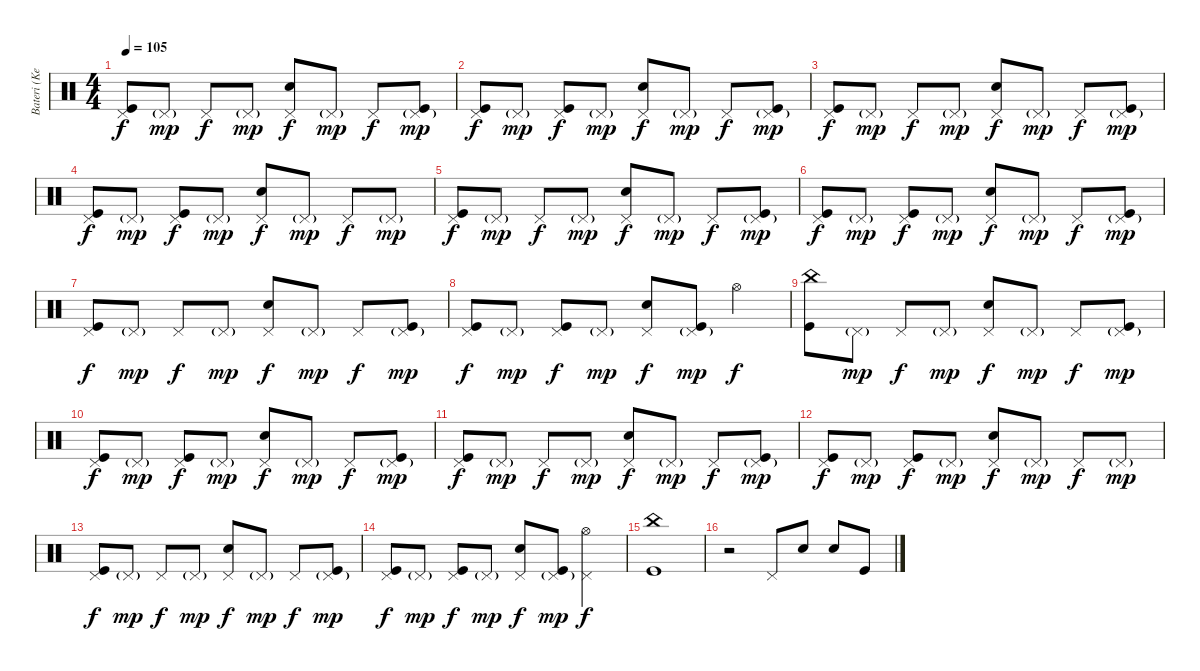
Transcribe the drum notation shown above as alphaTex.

\track ("Bateri (Kerem Kabadayı)" "Bateri (Ke") {instrument percussion}
\staff {score}
\articulation defaults
\ts (4 4)
\tempo 105
\clef neutral
\ks c
("Pedal Hi-Hat (hit)" "Kick (hit)").8{dy f} "Pedal Hi-Hat (hit)"{g}.8{dy mp} "Pedal Hi-Hat (hit)".8{dy f} "Pedal Hi-Hat (hit)"{g}.8{dy mp} ("Pedal Hi-Hat (hit)" "Electric Snare (hit)").8{dy f} "Pedal Hi-Hat (hit)"{g}.8{dy mp} "Pedal Hi-Hat (hit)".8{dy f} ("Pedal Hi-Hat (hit)"{g} "Kick (hit)").8{dy mp} |
("Pedal Hi-Hat (hit)" "Kick (hit)").8{dy f} "Pedal Hi-Hat (hit)"{g}.8{dy mp} ("Pedal Hi-Hat (hit)" "Kick (hit)").8{dy f} "Pedal Hi-Hat (hit)"{g}.8{dy mp} ("Pedal Hi-Hat (hit)" "Electric Snare (hit)").8{dy f} "Pedal Hi-Hat (hit)"{g}.8{dy mp} "Pedal Hi-Hat (hit)".8{dy f} ("Pedal Hi-Hat (hit)"{g} "Kick (hit)").8{dy mp} |
("Pedal Hi-Hat (hit)" "Kick (hit)").8{dy f} "Pedal Hi-Hat (hit)"{g}.8{dy mp} "Pedal Hi-Hat (hit)".8{dy f} "Pedal Hi-Hat (hit)"{g}.8{dy mp} ("Pedal Hi-Hat (hit)" "Electric Snare (hit)").8{dy f} "Pedal Hi-Hat (hit)"{g}.8{dy mp} "Pedal Hi-Hat (hit)".8{dy f} ("Pedal Hi-Hat (hit)"{g} "Kick (hit)").8{dy mp} |
("Pedal Hi-Hat (hit)" "Kick (hit)").8{dy f} "Pedal Hi-Hat (hit)"{g}.8{dy mp} ("Pedal Hi-Hat (hit)" "Kick (hit)").8{dy f} "Pedal Hi-Hat (hit)"{g}.8{dy mp} ("Pedal Hi-Hat (hit)" "Electric Snare (hit)").8{dy f} "Pedal Hi-Hat (hit)"{g}.8{dy mp} "Pedal Hi-Hat (hit)".8{dy f} "Pedal Hi-Hat (hit)"{g}.8{dy mp} |
("Pedal Hi-Hat (hit)" "Kick (hit)").8{dy f} "Pedal Hi-Hat (hit)"{g}.8{dy mp} "Pedal Hi-Hat (hit)".8{dy f} "Pedal Hi-Hat (hit)"{g}.8{dy mp} ("Pedal Hi-Hat (hit)" "Electric Snare (hit)").8{dy f} "Pedal Hi-Hat (hit)"{g}.8{dy mp} "Pedal Hi-Hat (hit)".8{dy f} ("Pedal Hi-Hat (hit)"{g} "Kick (hit)").8{dy mp} |
("Pedal Hi-Hat (hit)" "Kick (hit)").8{dy f} "Pedal Hi-Hat (hit)"{g}.8{dy mp} ("Pedal Hi-Hat (hit)" "Kick (hit)").8{dy f} "Pedal Hi-Hat (hit)"{g}.8{dy mp} ("Pedal Hi-Hat (hit)" "Electric Snare (hit)").8{dy f} "Pedal Hi-Hat (hit)"{g}.8{dy mp} "Pedal Hi-Hat (hit)".8{dy f} ("Pedal Hi-Hat (hit)"{g} "Kick (hit)").8{dy mp} |
("Pedal Hi-Hat (hit)" "Kick (hit)").8{dy f} "Pedal Hi-Hat (hit)"{g}.8{dy mp} "Pedal Hi-Hat (hit)".8{dy f} "Pedal Hi-Hat (hit)"{g}.8{dy mp} ("Pedal Hi-Hat (hit)" "Electric Snare (hit)").8{dy f} "Pedal Hi-Hat (hit)"{g}.8{dy mp} "Pedal Hi-Hat (hit)".8{dy f} ("Pedal Hi-Hat (hit)"{g} "Kick (hit)").8{dy mp} |
("Pedal Hi-Hat (hit)" "Kick (hit)").8{dy f} "Pedal Hi-Hat (hit)"{g}.8{dy mp} ("Pedal Hi-Hat (hit)" "Kick (hit)").8{dy f} "Pedal Hi-Hat (hit)"{g}.8{dy mp} ("Pedal Hi-Hat (hit)" "Electric Snare (hit)").8{dy f} ("Pedal Hi-Hat (hit)"{g} "Kick (hit)").8{dy mp} "Hi-Hat (open)".4{dy f} |
("China (hit)" "Kick (hit)").8 "Pedal Hi-Hat (hit)"{g}.8{dy mp} "Pedal Hi-Hat (hit)".8{dy f} "Pedal Hi-Hat (hit)"{g}.8{dy mp} ("Pedal Hi-Hat (hit)" "Electric Snare (hit)").8{dy f} "Pedal Hi-Hat (hit)"{g}.8{dy mp} "Pedal Hi-Hat (hit)".8{dy f} ("Pedal Hi-Hat (hit)"{g} "Kick (hit)").8{dy mp} |
("Pedal Hi-Hat (hit)" "Kick (hit)").8{dy f} "Pedal Hi-Hat (hit)"{g}.8{dy mp} ("Pedal Hi-Hat (hit)" "Kick (hit)").8{dy f} "Pedal Hi-Hat (hit)"{g}.8{dy mp} ("Pedal Hi-Hat (hit)" "Electric Snare (hit)").8{dy f} "Pedal Hi-Hat (hit)"{g}.8{dy mp} "Pedal Hi-Hat (hit)".8{dy f} ("Pedal Hi-Hat (hit)"{g} "Kick (hit)").8{dy mp} |
("Pedal Hi-Hat (hit)" "Kick (hit)").8{dy f} "Pedal Hi-Hat (hit)"{g}.8{dy mp} "Pedal Hi-Hat (hit)".8{dy f} "Pedal Hi-Hat (hit)"{g}.8{dy mp} ("Pedal Hi-Hat (hit)" "Electric Snare (hit)").8{dy f} "Pedal Hi-Hat (hit)"{g}.8{dy mp} "Pedal Hi-Hat (hit)".8{dy f} ("Pedal Hi-Hat (hit)"{g} "Kick (hit)").8{dy mp} |
("Pedal Hi-Hat (hit)" "Kick (hit)").8{dy f} "Pedal Hi-Hat (hit)"{g}.8{dy mp} ("Pedal Hi-Hat (hit)" "Kick (hit)").8{dy f} "Pedal Hi-Hat (hit)"{g}.8{dy mp} ("Pedal Hi-Hat (hit)" "Electric Snare (hit)").8{dy f} "Pedal Hi-Hat (hit)"{g}.8{dy mp} "Pedal Hi-Hat (hit)".8{dy f} "Pedal Hi-Hat (hit)"{g}.8{dy mp} |
("Pedal Hi-Hat (hit)" "Kick (hit)").8{dy f} "Pedal Hi-Hat (hit)"{g}.8{dy mp} "Pedal Hi-Hat (hit)".8{dy f} "Pedal Hi-Hat (hit)"{g}.8{dy mp} ("Pedal Hi-Hat (hit)" "Electric Snare (hit)").8{dy f} "Pedal Hi-Hat (hit)"{g}.8{dy mp} "Pedal Hi-Hat (hit)".8{dy f} ("Pedal Hi-Hat (hit)"{g} "Kick (hit)").8{dy mp} |
("Pedal Hi-Hat (hit)" "Kick (hit)").8{dy f} "Pedal Hi-Hat (hit)"{g}.8{dy mp} ("Pedal Hi-Hat (hit)" "Kick (hit)").8{dy f} "Pedal Hi-Hat (hit)"{g}.8{dy mp} ("Pedal Hi-Hat (hit)" "Electric Snare (hit)").8{dy f} ("Pedal Hi-Hat (hit)"{g} "Kick (hit)").8{dy mp} ("Pedal Hi-Hat (hit)" "Hi-Hat (open)").4{dy f} |
("China (hit)" "Kick (hit)").1 |
r.2 "Pedal Hi-Hat (hit)".8 "Electric Snare (hit)".8 "Electric Snare (hit)".8 "Kick (hit)".8
